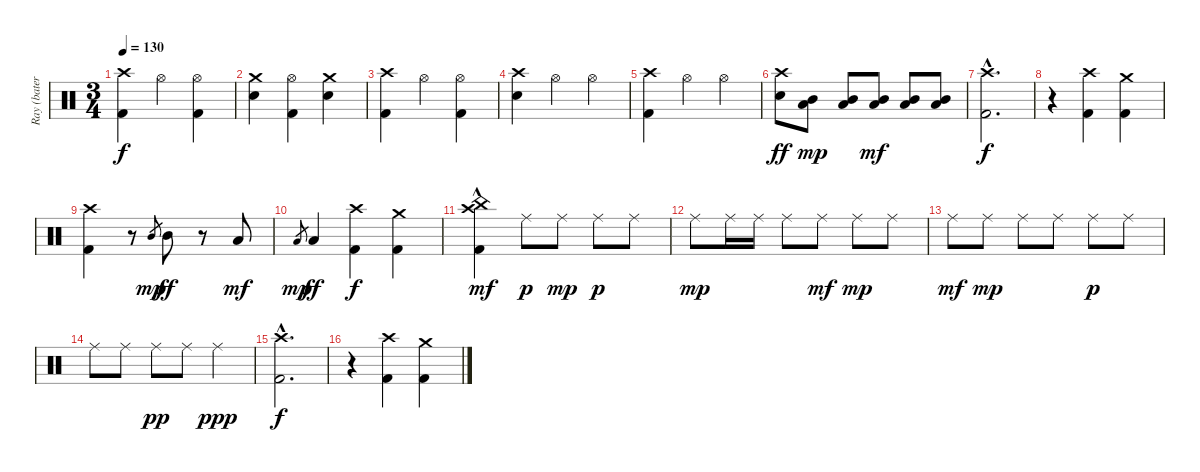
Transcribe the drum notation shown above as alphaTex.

\track ("Ray (batería)" "Ray (bater") {instrument percussion}
\staff {score}
\articulation defaults
\ts (3 4)
\tempo 130
\clef neutral
\ks c
("Crash high (hit)" "Kick (hit) 2").4{dy f} "Hi-Hat (open)".4 ("Hi-Hat (open)" "Kick (hit) 2").4 |
("Crash medium (hit)" "Snare (hit) 2").4 ("Hi-Hat (open)" "Kick (hit) 2").4 ("Crash medium (hit)" "Snare (hit) 2").4 |
("Crash high (hit)" "Kick (hit) 2").4 "Hi-Hat (open)".4 ("Hi-Hat (open)" "Kick (hit) 2").4 |
("Crash high (hit)" "Snare (hit) 2").4 "Hi-Hat (open)".4 "Hi-Hat (open)".4 |
("Crash high (hit)" "Kick (hit) 2").4 "Hi-Hat (open)".4 "Hi-Hat (open)".4 |
("Crash high (hit)" "Snare (hit) 2").8{dy ff} ("Mid Tom (hit)" "Low Tom (hit)").8{dy mp} ("Mid Tom (hit)" "Low Tom (hit)").8 ("Mid Tom (hit)" "Low Tom (hit)").8{dy mf} ("Mid Tom (hit)" "Low Tom (hit)").8 ("Mid Tom (hit)" "Low Tom (hit)").8 |
("Crash high (hit)"{hac} "Kick (hit) 2"{hac}).2{d dy f} |
r.4 ("Crash high (hit)" "Kick (hit) 2").4 ("Crash medium (hit)" "Kick (hit) 2").4 |
("Crash high (hit)" "Kick (hit) 2").4 r.8 "Mid Tom (hit)".8{gr dy mp} "Mid Tom (hit)".8{dy ff} r.8 "Low Tom (hit)".8{dy mf} |
"Low Tom (hit)".8{gr dy mp} "Low Tom (hit)".4{dy ff} ("Crash high (hit)" "Kick (hit) 2").4{dy f} ("Crash medium (hit)" "Kick (hit) 2").4 |
("Crash high (hit)" "China (hit)" "Kick (hit) 2"{hac}).4{dy mf} "Ride (middle)".8{dy p} "Ride (middle)".8{dy mp} "Ride (middle)".8{dy p} "Ride (middle)".8 |
"Ride (middle)".8{dy mp} "Ride (middle)".16 "Ride (middle)".16 "Ride (middle)".8 "Ride (middle)".8{dy mf} "Ride (middle)".8{dy mp} "Ride (middle)".8 |
"Ride (middle)".8{dy mf} "Ride (middle)".8{dy mp} "Ride (middle)".8 "Ride (middle)".8 "Ride (middle)".8{dy p} "Ride (middle)".8 |
"Ride (middle)".8 "Ride (middle)".8 "Ride (middle)".8{dy pp} "Ride (middle)".8 "Ride (middle)".4{dy ppp} |
("Crash high (hit)"{hac} "Kick (hit) 2"{hac}).2{d dy f} |
r.4 ("Crash high (hit)" "Kick (hit) 2").4 ("Crash medium (hit)" "Kick (hit) 2").4
